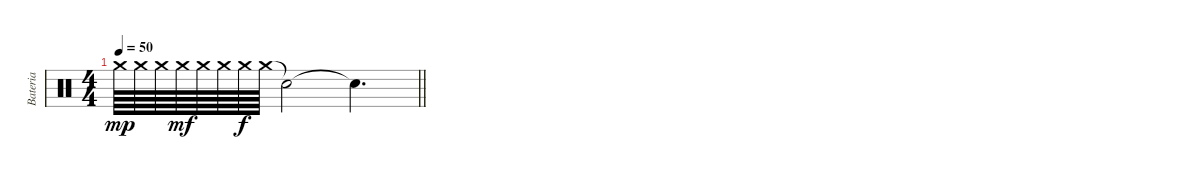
\track ("Bateria" "Bateria") {instrument percussion}
\staff {score}
\articulation defaults
\ts (4 4)
\tempo 50
\clef neutral
\barLineRight lightlight
\ks c "Crash medium (hit)".64{dy mp} "Crash medium (hit)".64 "Crash medium (hit)".64 "Crash medium (hit)".64{dy mf} "Crash medium (hit)".64 "Crash medium (hit)".64 "Crash medium (hit)".64{dy f} "Crash medium (hit)".64 "Snare (hit)"{t}.2 "Snare (hit)"{t}.4{d}
